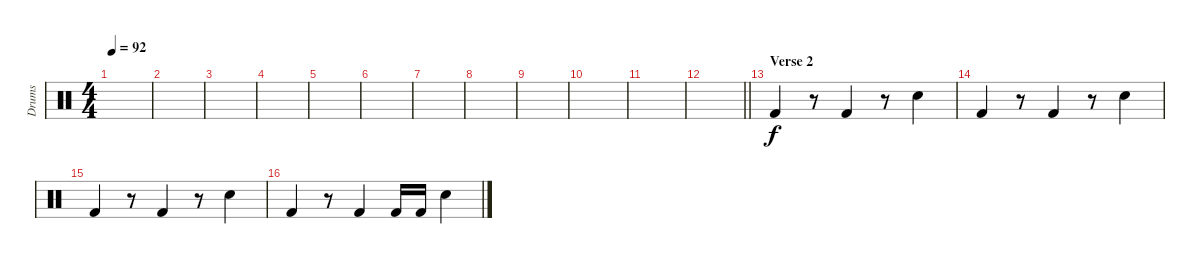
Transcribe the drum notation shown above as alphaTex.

\track ("Drums" "Drums") {instrument percussion}
\staff {score}
\articulation defaults
\ts (4 4)
\tempo 92
\clef neutral
\ks c
|
|
|
|
|
|
|
|
|
|
|
\barLineRight lightlight
|
\section ("" "Verse 2")
"Kick (hit) 2".4 r.8 "Kick (hit) 2".4 r.8 "Snare (hit) 2".4 |
"Kick (hit) 2".4 r.8 "Kick (hit) 2".4 r.8 "Snare (hit) 2".4 |
"Kick (hit) 2".4 r.8 "Kick (hit) 2".4 r.8 "Snare (hit) 2".4 |
"Kick (hit) 2".4 r.8 "Kick (hit) 2".4 "Kick (hit) 2".16 "Kick (hit) 2".16 "Snare (hit) 2".4
